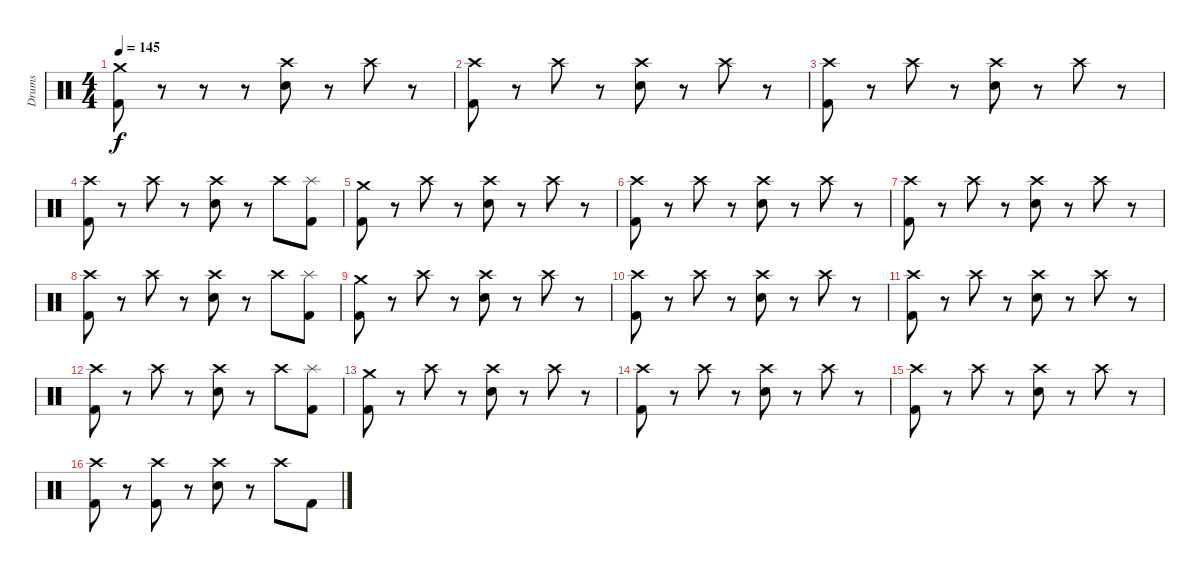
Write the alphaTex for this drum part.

\track ("Drums" "Drums") {instrument percussion}
\staff {score}
\articulation defaults
\ts (4 4)
\tempo 145
\clef neutral
\ks c
("Crash medium (hit)" "Kick (hit) 2").8{dy f} r.8 r.8 r.8 ("Crash high (hit)" "Electric Snare (hit)").8 r.8 "Crash high (hit)".8 r.8 |
("Crash high (hit)" "Kick (hit) 2").8 r.8 "Crash high (hit)".8 r.8 ("Crash high (hit)" "Electric Snare (hit)").8 r.8 "Crash high (hit)".8 r.8 |
("Crash high (hit)" "Kick (hit) 2").8 r.8 "Crash high (hit)".8 r.8 ("Crash high (hit)" "Electric Snare (hit)").8 r.8 "Crash high (hit)".8 r.8 |
("Crash high (hit)" "Kick (hit) 2").8 r.8 "Crash high (hit)".8 r.8 ("Crash high (hit)" "Electric Snare (hit)").8 r.8 "Crash high (hit)".8 ("Splash (hit)" "Kick (hit) 2").8 |
("Crash medium (hit)" "Kick (hit) 2").8 r.8 "Crash high (hit)".8 r.8 ("Crash high (hit)" "Electric Snare (hit)").8 r.8 "Crash high (hit)".8 r.8 |
("Crash high (hit)" "Kick (hit) 2").8 r.8 "Crash high (hit)".8 r.8 ("Crash high (hit)" "Electric Snare (hit)").8 r.8 "Crash high (hit)".8 r.8 |
("Crash high (hit)" "Kick (hit) 2").8 r.8 "Crash high (hit)".8 r.8 ("Crash high (hit)" "Electric Snare (hit)").8 r.8 "Crash high (hit)".8 r.8 |
("Crash high (hit)" "Kick (hit) 2").8 r.8 "Crash high (hit)".8 r.8 ("Crash high (hit)" "Electric Snare (hit)").8 r.8 "Crash high (hit)".8 ("Splash (hit)" "Kick (hit) 2").8 |
("Crash medium (hit)" "Kick (hit) 2").8 r.8 "Crash high (hit)".8 r.8 ("Crash high (hit)" "Electric Snare (hit)").8 r.8 "Crash high (hit)".8 r.8 |
("Crash high (hit)" "Kick (hit) 2").8 r.8 "Crash high (hit)".8 r.8 ("Crash high (hit)" "Electric Snare (hit)").8 r.8 "Crash high (hit)".8 r.8 |
("Crash high (hit)" "Kick (hit) 2").8 r.8 "Crash high (hit)".8 r.8 ("Crash high (hit)" "Electric Snare (hit)").8 r.8 "Crash high (hit)".8 r.8 |
("Crash high (hit)" "Kick (hit) 2").8 r.8 "Crash high (hit)".8 r.8 ("Crash high (hit)" "Electric Snare (hit)").8 r.8 "Crash high (hit)".8 ("Splash (hit)" "Kick (hit) 2").8 |
("Crash medium (hit)" "Kick (hit) 2").8 r.8 "Crash high (hit)".8 r.8 ("Crash high (hit)" "Electric Snare (hit)").8 r.8 "Crash high (hit)".8 r.8 |
("Crash high (hit)" "Kick (hit) 2").8 r.8 "Crash high (hit)".8 r.8 ("Crash high (hit)" "Electric Snare (hit)").8 r.8 "Crash high (hit)".8 r.8 |
("Crash high (hit)" "Kick (hit) 2").8 r.8 "Crash high (hit)".8 r.8 ("Crash high (hit)" "Electric Snare (hit)").8 r.8 "Crash high (hit)".8 r.8 |
("Crash high (hit)" "Kick (hit) 2").8 r.8 ("Crash high (hit)" "Kick (hit) 2").8 r.8 ("Crash high (hit)" "Electric Snare (hit)").8 r.8 "Crash high (hit)".8 "Kick (hit) 2".8
